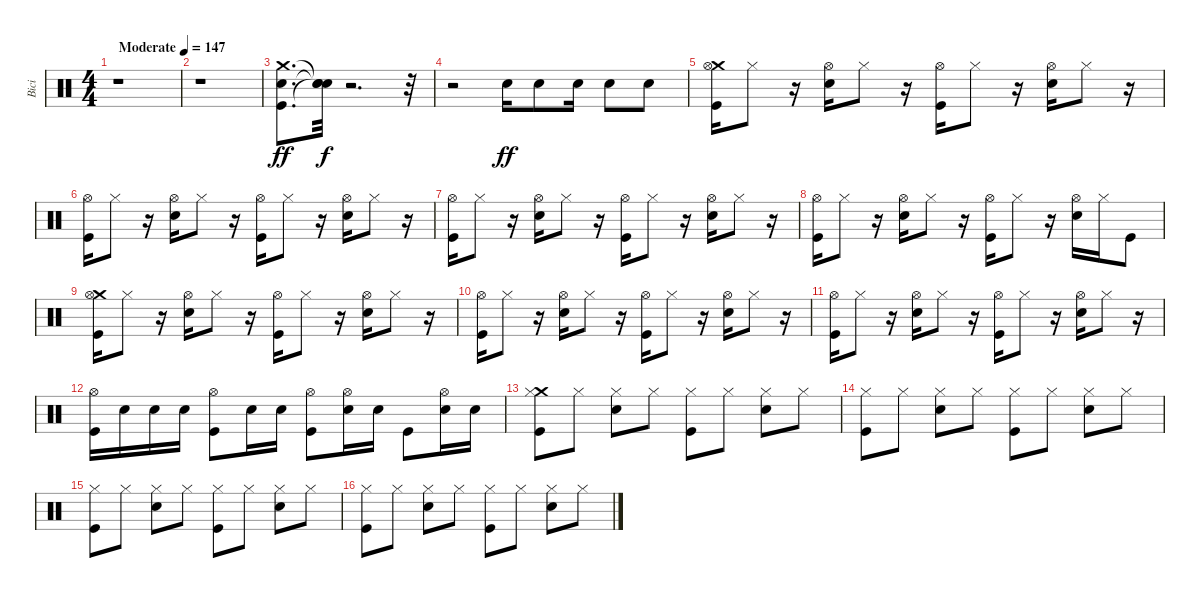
\track ("Bici" "Bici") {instrument percussion}
\staff {score}
\articulation defaults
\ts (4 4)
\tempo (147 "Moderate")
\clef neutral
\ks c
r.1{dy ff} |
r.1 |
("Kick (hit)" "Snare (hit) 2" "Crash medium (hit)").8{d} ("Snare (hit)"{t} "Snare (hit)"{t} "Snare (hit)"{t}).32{dy f} r.2{d} r.32 |
r.2 "Snare (hit) 2".16{dy ff} "Snare (hit) 2".8 "Snare (hit) 2".16 "Snare (hit) 2".8 "Snare (hit) 2".8 |
("Kick (hit)" "Crash medium (hit)" "Hi-Hat (open)").16 "Hi-Hat (closed)".8 r.16 ("Snare (hit) 2" "Hi-Hat (open)").16 "Hi-Hat (closed)".8 r.16 ("Kick (hit)" "Hi-Hat (open)").16 "Hi-Hat (closed)".8 r.16 ("Snare (hit) 2" "Hi-Hat (open)").16 "Hi-Hat (closed)".8 r.16 |
("Kick (hit)" "Hi-Hat (open)").16 "Hi-Hat (closed)".8 r.16 ("Snare (hit) 2" "Hi-Hat (open)").16 "Hi-Hat (closed)".8 r.16 ("Kick (hit)" "Hi-Hat (open)").16 "Hi-Hat (closed)".8 r.16 ("Snare (hit) 2" "Hi-Hat (open)").16 "Hi-Hat (closed)".8 r.16 |
("Kick (hit)" "Hi-Hat (open)").16 "Hi-Hat (closed)".8 r.16 ("Snare (hit) 2" "Hi-Hat (open)").16 "Hi-Hat (closed)".8 r.16 ("Kick (hit)" "Hi-Hat (open)").16 "Hi-Hat (closed)".8 r.16 ("Snare (hit) 2" "Hi-Hat (open)").16 "Hi-Hat (closed)".8 r.16 |
("Kick (hit)" "Hi-Hat (open)").16 "Hi-Hat (closed)".8 r.16 ("Snare (hit) 2" "Hi-Hat (open)").16 "Hi-Hat (closed)".8 r.16 ("Kick (hit)" "Hi-Hat (open)").16 "Hi-Hat (closed)".8 r.16 ("Snare (hit) 2" "Hi-Hat (open)").16 "Hi-Hat (closed)".16 "Kick (hit)".8 |
("Kick (hit)" "Crash medium (hit)" "Hi-Hat (open)").16 "Hi-Hat (closed)".8 r.16 ("Snare (hit) 2" "Hi-Hat (open)").16 "Hi-Hat (closed)".8 r.16 ("Kick (hit)" "Hi-Hat (open)").16 "Hi-Hat (closed)".8 r.16 ("Snare (hit) 2" "Hi-Hat (open)").16 "Hi-Hat (closed)".8 r.16 |
("Kick (hit)" "Hi-Hat (open)").16 "Hi-Hat (closed)".8 r.16 ("Snare (hit) 2" "Hi-Hat (open)").16 "Hi-Hat (closed)".8 r.16 ("Kick (hit)" "Hi-Hat (open)").16 "Hi-Hat (closed)".8 r.16 ("Snare (hit) 2" "Hi-Hat (open)").16 "Hi-Hat (closed)".8 r.16 |
("Kick (hit)" "Hi-Hat (open)").16 "Hi-Hat (closed)".8 r.16 ("Snare (hit) 2" "Hi-Hat (open)").16 "Hi-Hat (closed)".8 r.16 ("Kick (hit)" "Hi-Hat (open)").16 "Hi-Hat (closed)".8 r.16 ("Snare (hit) 2" "Hi-Hat (open)").16 "Hi-Hat (closed)".8 r.16 |
("Kick (hit)" "Hi-Hat (open)").16 "Snare (hit) 2".16 "Snare (hit) 2".16 "Snare (hit) 2".16 ("Kick (hit)" "Hi-Hat (open)").8 "Snare (hit) 2".16 "Snare (hit) 2".16 ("Kick (hit)" "Hi-Hat (open)").8 ("Snare (hit) 2" "Hi-Hat (open)").16 "Snare (hit) 2".16 "Kick (hit)".8 ("Snare (hit) 2" "Hi-Hat (open)").16 "Snare (hit) 2".16 |
("Kick (hit)" "Crash medium (hit)" "Hi-Hat (closed)").8 "Hi-Hat (closed)".8 ("Snare (hit) 2" "Hi-Hat (closed)").8 "Hi-Hat (closed)".8 ("Kick (hit)" "Hi-Hat (closed)").8 "Hi-Hat (closed)".8 ("Snare (hit) 2" "Hi-Hat (closed)").8 "Hi-Hat (closed)".8 |
("Kick (hit)" "Hi-Hat (closed)").8 "Hi-Hat (closed)".8 ("Snare (hit) 2" "Hi-Hat (closed)").8 "Hi-Hat (closed)".8 ("Kick (hit)" "Hi-Hat (closed)").8 "Hi-Hat (closed)".8 ("Snare (hit) 2" "Hi-Hat (closed)").8 "Hi-Hat (closed)".8 |
("Kick (hit)" "Hi-Hat (closed)").8 "Hi-Hat (closed)".8 ("Snare (hit) 2" "Hi-Hat (closed)").8 "Hi-Hat (closed)".8 ("Kick (hit)" "Hi-Hat (closed)").8 "Hi-Hat (closed)".8 ("Snare (hit) 2" "Hi-Hat (closed)").8 "Hi-Hat (closed)".8 |
("Kick (hit)" "Hi-Hat (closed)").8 "Hi-Hat (closed)".8 ("Snare (hit) 2" "Hi-Hat (closed)").8 "Hi-Hat (closed)".8 ("Kick (hit)" "Hi-Hat (closed)").8 "Hi-Hat (closed)".8 ("Snare (hit) 2" "Hi-Hat (closed)").8 "Hi-Hat (closed)".8
